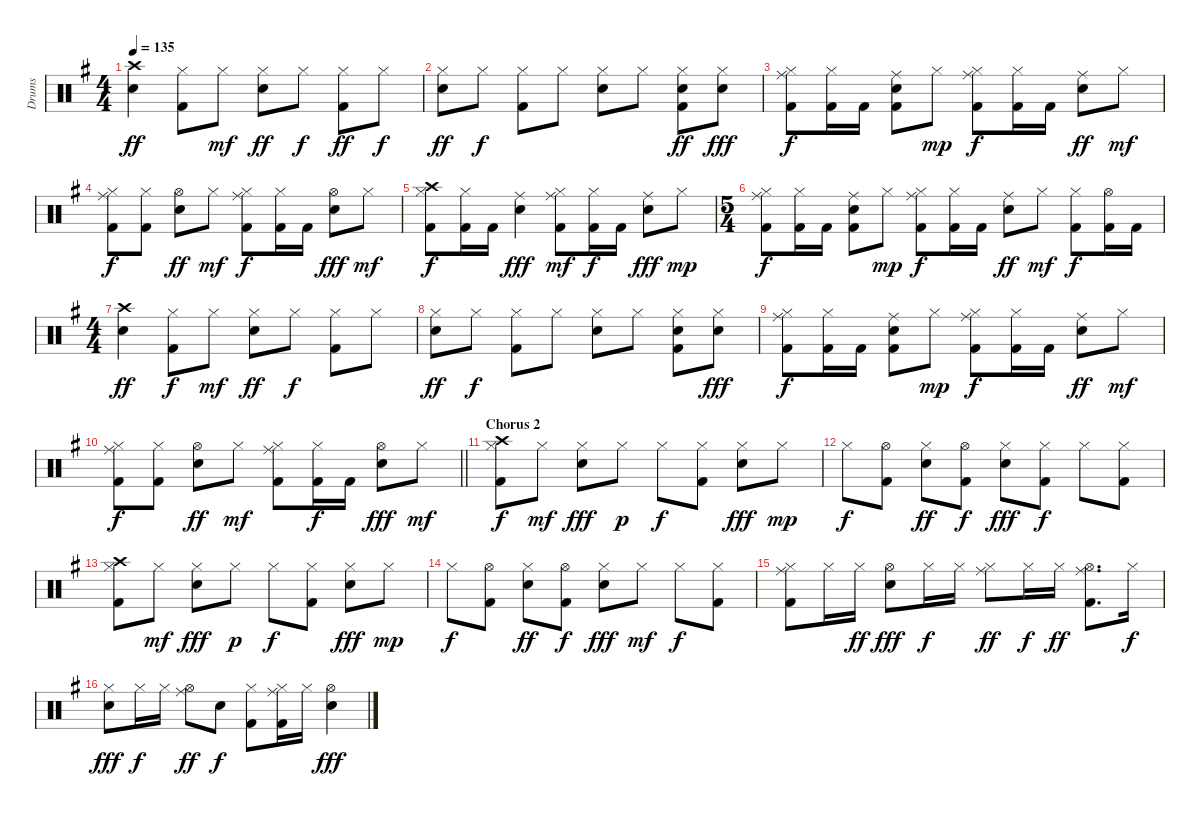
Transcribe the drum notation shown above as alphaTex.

\track ("Drums" "Drums") {instrument percussion}
\staff {score}
\articulation defaults
\ts (4 4)
\tempo 135
\clef neutral
\ks g
("Crash high (hit)" "Electric Snare (hit)").4{dy ff} ("Hi-Hat (closed)" "Kick (hit) 2").8 "Hi-Hat (closed)".8{dy mf} ("Hi-Hat (closed)" "Electric Snare (hit)").8{dy ff} "Hi-Hat (closed)".8{dy f} ("Hi-Hat (closed)" "Kick (hit) 2").8{dy ff} "Hi-Hat (closed)".8{dy f} |
("Hi-Hat (closed)" "Electric Snare (hit)").8{dy ff} "Hi-Hat (closed)".8{dy f} ("Hi-Hat (closed)" "Kick (hit) 2").8 "Hi-Hat (closed)".8 ("Hi-Hat (closed)" "Electric Snare (hit)").8 "Hi-Hat (closed)".8 ("Hi-Hat (closed)" "Electric Snare (hit)" "Kick (hit) 2").8{dy ff} ("Hi-Hat (closed)" "Electric Snare (hit)").8{dy fff} |
("Hi-Hat (closed)" "Ride (middle)" "Kick (hit) 2").8{dy f} ("Hi-Hat (closed)" "Kick (hit) 2").16 "Kick (hit) 2".16 ("Ride (middle)" "Electric Snare (hit)" "Kick (hit) 2").8 "Hi-Hat (closed)".8{dy mp} ("Hi-Hat (closed)" "Ride (middle)" "Kick (hit) 2").8{dy f} ("Hi-Hat (closed)" "Kick (hit) 2").16 "Kick (hit) 2".16 ("Ride (middle)" "Electric Snare (hit)").8{dy ff} "Hi-Hat (closed)".8{dy mf} |
("Hi-Hat (closed)" "Ride (middle)" "Kick (hit) 2").8{dy f} ("Hi-Hat (closed)" "Kick (hit) 2").8 ("Hi-Hat (open)" "Electric Snare (hit)").8{dy ff} "Hi-Hat (closed)".8{dy mf} ("Hi-Hat (closed)" "Ride (middle)" "Kick (hit) 2").8{dy f} ("Hi-Hat (closed)" "Kick (hit) 2").16 "Kick (hit) 2".16 ("Hi-Hat (open)" "Electric Snare (hit)").8{dy fff} "Hi-Hat (closed)".8{dy mf} |
("Hi-Hat (closed)" "Crash high (hit)" "Kick (hit) 2").8{dy f} ("Hi-Hat (closed)" "Kick (hit) 2").16 "Kick (hit) 2".16 ("Ride (middle)" "Electric Snare (hit)").4{dy fff} ("Hi-Hat (closed)" "Ride (middle)" "Kick (hit) 2").8{dy mf} ("Hi-Hat (closed)" "Kick (hit) 2").16{dy f} "Kick (hit) 2".16 ("Ride (middle)" "Electric Snare (hit)").8{dy fff} "Hi-Hat (closed)".8{dy mp} |
\ts (5 4)
("Hi-Hat (closed)" "Ride (middle)" "Kick (hit) 2").8{dy f} ("Hi-Hat (closed)" "Kick (hit) 2").16 "Kick (hit) 2".16 ("Ride (middle)" "Electric Snare (hit)" "Kick (hit) 2").8 "Hi-Hat (closed)".8{dy mp} ("Hi-Hat (closed)" "Ride (middle)" "Kick (hit) 2").8{dy f} ("Hi-Hat (closed)" "Kick (hit) 2").16 "Kick (hit) 2".16 ("Ride (middle)" "Electric Snare (hit)").8{dy ff} "Hi-Hat (closed)".8{dy mf} ("Hi-Hat (closed)" "Kick (hit) 2").8{dy f} ("Hi-Hat (open)" "Kick (hit) 2").16 "Kick (hit) 2".16 |
\ts (4 4)
("Crash high (hit)" "Electric Snare (hit)").4{dy ff} ("Hi-Hat (closed)" "Kick (hit) 2").8{dy f} "Hi-Hat (closed)".8{dy mf} ("Hi-Hat (closed)" "Electric Snare (hit)").8{dy ff} "Hi-Hat (closed)".8{dy f} ("Hi-Hat (closed)" "Kick (hit) 2").8 "Hi-Hat (closed)".8 |
("Hi-Hat (closed)" "Electric Snare (hit)").8{dy ff} "Hi-Hat (closed)".8{dy f} ("Hi-Hat (closed)" "Kick (hit) 2").8 "Hi-Hat (closed)".8 ("Hi-Hat (closed)" "Electric Snare (hit)").8 "Hi-Hat (closed)".8 ("Hi-Hat (closed)" "Electric Snare (hit)" "Kick (hit) 2").8 ("Hi-Hat (closed)" "Electric Snare (hit)").8{dy fff} |
("Hi-Hat (closed)" "Ride (middle)" "Kick (hit) 2").8{dy f} ("Hi-Hat (closed)" "Kick (hit) 2").16 "Kick (hit) 2".16 ("Ride (middle)" "Electric Snare (hit)" "Kick (hit) 2").8 "Hi-Hat (closed)".8{dy mp} ("Hi-Hat (closed)" "Ride (middle)" "Kick (hit) 2").8{dy f} ("Hi-Hat (closed)" "Kick (hit) 2").16 "Kick (hit) 2".16 ("Ride (middle)" "Electric Snare (hit)").8{dy ff} "Hi-Hat (closed)".8{dy mf} |
\barLineRight lightlight
("Hi-Hat (closed)" "Ride (middle)" "Kick (hit) 2").8{dy f} ("Hi-Hat (closed)" "Kick (hit) 2").8 ("Hi-Hat (open)" "Electric Snare (hit)").8{dy ff} "Hi-Hat (closed)".8{dy mf} ("Hi-Hat (closed)" "Ride (middle)" "Kick (hit) 2").8 ("Hi-Hat (closed)" "Kick (hit) 2").16{dy f} "Kick (hit) 2".16 ("Hi-Hat (open)" "Electric Snare (hit)").8{dy fff} "Hi-Hat (closed)".8{dy mf} |
\section ("" "Chorus 2")
("Hi-Hat (closed)" "Crash high (hit)" "Kick (hit) 2").8{dy f} "Hi-Hat (closed)".8{dy mf} ("Hi-Hat (closed)" "Electric Snare (hit)").8{dy fff} "Hi-Hat (closed)".8{dy p} "Hi-Hat (closed)".8{dy f} ("Hi-Hat (closed)" "Kick (hit) 2").8 ("Hi-Hat (closed)" "Electric Snare (hit)").8{dy fff} "Hi-Hat (closed)".8{dy mp} |
"Hi-Hat (closed)".8{dy f} ("Hi-Hat (open)" "Kick (hit) 2").8 ("Hi-Hat (closed)" "Electric Snare (hit)").8{dy ff} ("Hi-Hat (open)" "Kick (hit) 2").8{dy f} ("Hi-Hat (closed)" "Electric Snare (hit)").8{dy fff} ("Hi-Hat (closed)" "Kick (hit) 2").8{dy f} "Hi-Hat (closed)".8 ("Hi-Hat (closed)" "Kick (hit) 2").8 |
("Hi-Hat (closed)" "Crash high (hit)" "Kick (hit) 2").8 "Hi-Hat (closed)".8{dy mf} ("Hi-Hat (closed)" "Electric Snare (hit)").8{dy fff} "Hi-Hat (closed)".8{dy p} "Hi-Hat (closed)".8{dy f} ("Hi-Hat (closed)" "Kick (hit) 2").8 ("Hi-Hat (closed)" "Electric Snare (hit)").8{dy fff} "Hi-Hat (closed)".8{dy mp} |
"Hi-Hat (closed)".8{dy f} ("Hi-Hat (open)" "Kick (hit) 2").8 ("Hi-Hat (closed)" "Electric Snare (hit)").8{dy ff} ("Hi-Hat (open)" "Kick (hit) 2").8{dy f} ("Hi-Hat (closed)" "Snare (hit) 2").8{dy fff} "Hi-Hat (closed)".8{dy mf} "Hi-Hat (closed)".8{dy f} ("Hi-Hat (closed)" "Kick (hit) 2").8 |
("Hi-Hat (closed)" "Ride (middle)" "Kick (hit) 2").8 "Hi-Hat (closed)".16 "Hi-Hat (closed)".16{dy ff} ("Hi-Hat (open)" "Electric Snare (hit)").8{dy fff} "Hi-Hat (closed)".16{dy f} "Hi-Hat (closed)".16 ("Hi-Hat (closed)" "Ride (middle)").8{dy ff} "Hi-Hat (closed)".16{dy f} "Hi-Hat (closed)".16{dy ff} ("Hi-Hat (open)" "Ride (middle)" "Kick (hit) 2").8{d} "Hi-Hat (closed)".16{dy f} |
("Hi-Hat (closed)" "Electric Snare (hit)").8{dy fff} "Hi-Hat (closed)".16{dy f} "Hi-Hat (closed)".16 ("Hi-Hat (open)" "Ride (middle)").8{dy ff} "Electric Snare (hit)".8{dy f} ("Hi-Hat (closed)" "Kick (hit) 2").8 ("Hi-Hat (closed)" "Ride (middle)" "Kick (hit) 2").16 "Hi-Hat (closed)".16 ("Hi-Hat (open)" "Electric Snare (hit)").4{dy fff}
